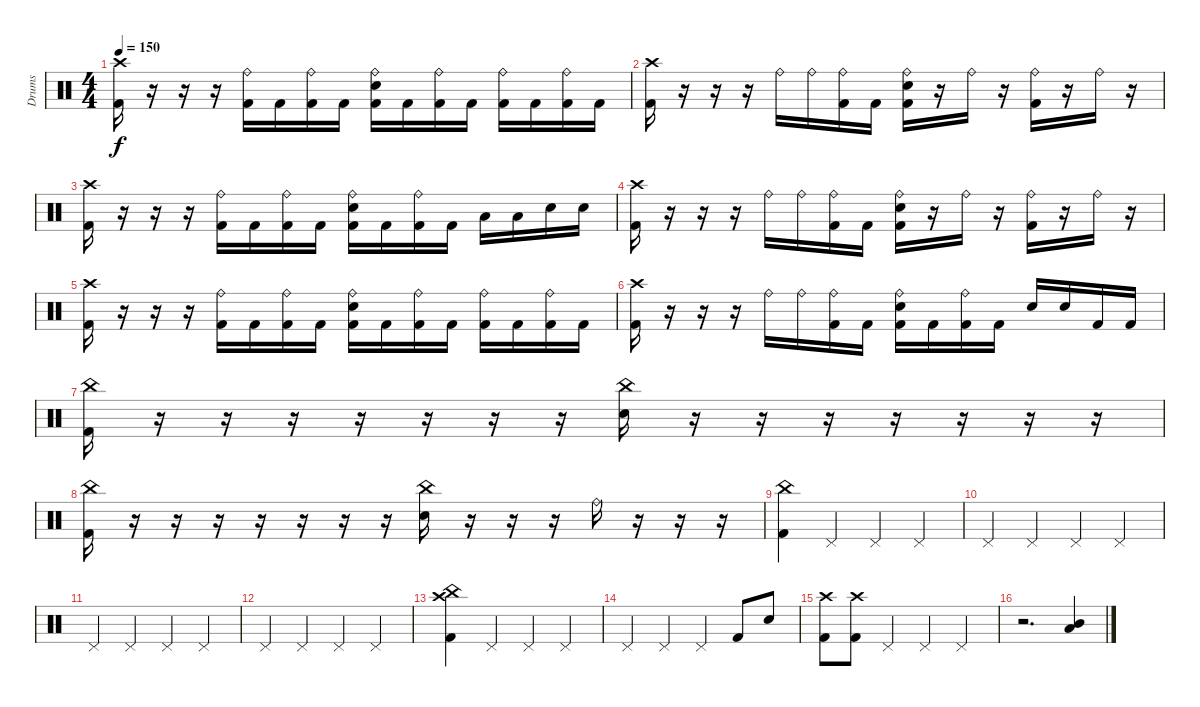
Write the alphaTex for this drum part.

\track ("Drums" "Drums") {instrument percussion}
\staff {score}
\articulation defaults
\ts (4 4)
\tempo 150
\clef neutral
\ks c
("Crash high (hit)" "Kick (hit) 2").16{dy f} r.16 r.16 r.16 ("Ride (bell)" "Kick (hit) 2").16 "Kick (hit) 2".16 ("Ride (bell)" "Kick (hit) 2").16 "Kick (hit) 2".16 ("Ride (bell)" "Snare (hit) 2" "Kick (hit) 2").16 "Kick (hit) 2".16 ("Ride (bell)" "Kick (hit) 2").16 "Kick (hit) 2".16 ("Ride (bell)" "Kick (hit) 2").16 "Kick (hit) 2".16 ("Ride (bell)" "Kick (hit) 2").16 "Kick (hit) 2".16 |
("Crash high (hit)" "Kick (hit) 2").16 r.16 r.16 r.16 "Ride (bell)".16 "Ride (bell)".16 ("Ride (bell)" "Kick (hit) 2").16 "Kick (hit) 2".16 ("Ride (bell)" "Snare (hit) 2" "Kick (hit) 2").16 r.16 "Ride (bell)".16 r.16 ("Ride (bell)" "Kick (hit) 2").16 r.16 "Ride (bell)".16 r.16 |
("Crash high (hit)" "Kick (hit) 2").16 r.16 r.16 r.16 ("Ride (bell)" "Kick (hit) 2").16 "Kick (hit) 2".16 ("Ride (bell)" "Kick (hit) 2").16 "Kick (hit) 2".16 ("Ride (bell)" "Snare (hit) 2" "Kick (hit) 2").16 "Kick (hit) 2".16 ("Ride (bell)" "Kick (hit) 2").16 "Kick (hit) 2".16 "Low Tom (hit)".16 "Low Tom (hit)".16 "Snare (hit) 2".16 "Snare (hit) 2".16 |
("Crash high (hit)" "Kick (hit) 2").16 r.16 r.16 r.16 "Ride (bell)".16 "Ride (bell)".16 ("Ride (bell)" "Kick (hit) 2").16 "Kick (hit) 2".16 ("Ride (bell)" "Snare (hit) 2" "Kick (hit) 2").16 r.16 "Ride (bell)".16 r.16 ("Ride (bell)" "Kick (hit) 2").16 r.16 "Ride (bell)".16 r.16 |
("Crash high (hit)" "Kick (hit) 2").16 r.16 r.16 r.16 ("Ride (bell)" "Kick (hit) 2").16 "Kick (hit) 2".16 ("Ride (bell)" "Kick (hit) 2").16 "Kick (hit) 2".16 ("Ride (bell)" "Snare (hit) 2" "Kick (hit) 2").16 "Kick (hit) 2".16 ("Ride (bell)" "Kick (hit) 2").16 "Kick (hit) 2".16 ("Ride (bell)" "Kick (hit) 2").16 "Kick (hit) 2".16 ("Ride (bell)" "Kick (hit) 2").16 "Kick (hit) 2".16 |
("Crash high (hit)" "Kick (hit) 2").16 r.16 r.16 r.16 "Ride (bell)".16 "Ride (bell)".16 ("Ride (bell)" "Kick (hit) 2").16 "Kick (hit) 2".16 ("Ride (bell)" "Snare (hit) 2" "Kick (hit) 2").16 "Kick (hit) 2".16 ("Ride (bell)" "Kick (hit) 2").16 "Kick (hit) 2".16 "Snare (hit) 2".16 "Snare (hit) 2".16 "Kick (hit) 2".16 "Kick (hit) 2".16 |
("China (hit)" "Kick (hit) 2").16 r.16 r.16 r.16 r.16 r.16 r.16 r.16 ("China (hit)" "Snare (hit) 2").16 r.16 r.16 r.16 r.16 r.16 r.16 r.16 |
("China (hit)" "Kick (hit) 2").16 r.16 r.16 r.16 r.16 r.16 r.16 r.16 ("China (hit)" "Snare (hit) 2").16 r.16 r.16 r.16 "Ride (bell)".16 r.16 r.16 r.16 |
("China (hit)" "Kick (hit) 2").4 "Pedal Hi-Hat (hit)".4 "Pedal Hi-Hat (hit)".4 "Pedal Hi-Hat (hit)".4 |
"Pedal Hi-Hat (hit)".4 "Pedal Hi-Hat (hit)".4 "Pedal Hi-Hat (hit)".4 "Pedal Hi-Hat (hit)".4 |
"Pedal Hi-Hat (hit)".4 "Pedal Hi-Hat (hit)".4 "Pedal Hi-Hat (hit)".4 "Pedal Hi-Hat (hit)".4 |
"Pedal Hi-Hat (hit)".4 "Pedal Hi-Hat (hit)".4 "Pedal Hi-Hat (hit)".4 "Pedal Hi-Hat (hit)".4 |
("China (hit)" "Crash high (hit)" "Kick (hit) 2").4 "Pedal Hi-Hat (hit)".4 "Pedal Hi-Hat (hit)".4 "Pedal Hi-Hat (hit)".4 |
"Pedal Hi-Hat (hit)".4 "Pedal Hi-Hat (hit)".4 "Pedal Hi-Hat (hit)".4 "Kick (hit) 2".8 "Snare (hit) 2".8 |
("Crash high (hit)" "Kick (hit) 2").8 ("Crash high (hit)" "Kick (hit) 2").8 "Pedal Hi-Hat (hit)".4 "Pedal Hi-Hat (hit)".4 "Pedal Hi-Hat (hit)".4 |
r.2{d} ("Low Tom (hit)" "Mid Tom (hit)").4
